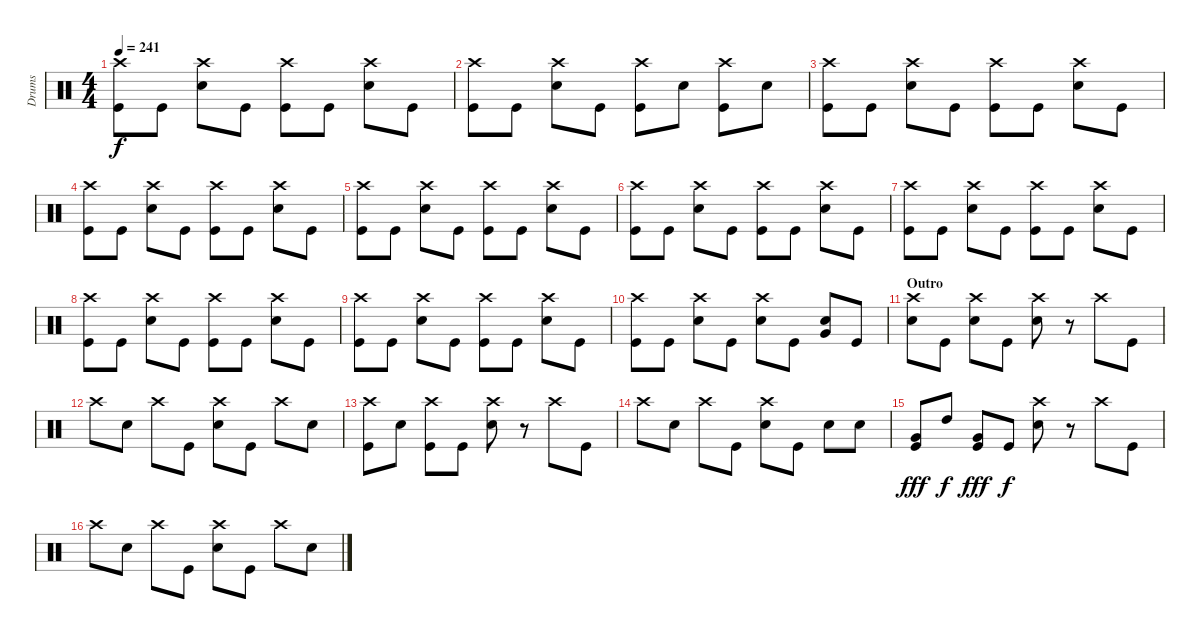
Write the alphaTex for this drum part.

\track ("Drums" "Drums") {instrument percussion}
\staff {score}
\articulation defaults
\ts (4 4)
\tempo 241
\clef neutral
\ks c
("Crash high (hit)" "Kick (hit)").8{dy f} "Kick (hit)".8 ("Crash high (hit)" "Electric Snare (hit)").8 "Kick (hit)".8 ("Crash high (hit)" "Kick (hit)").8 "Kick (hit)".8 ("Crash high (hit)" "Electric Snare (hit)").8 "Kick (hit)".8 |
("Crash high (hit)" "Kick (hit)").8 "Kick (hit)".8 ("Crash high (hit)" "Electric Snare (hit)").8 "Kick (hit)".8 ("Crash high (hit)" "Kick (hit)").8 "Electric Snare (hit)".8 ("Crash high (hit)" "Kick (hit)").8 "Electric Snare (hit)".8 |
("Crash high (hit)" "Kick (hit)").8 "Kick (hit)".8 ("Crash high (hit)" "Electric Snare (hit)").8 "Kick (hit)".8 ("Crash high (hit)" "Kick (hit)").8 "Kick (hit)".8 ("Crash high (hit)" "Electric Snare (hit)").8 "Kick (hit)".8 |
("Crash high (hit)" "Kick (hit)").8 "Kick (hit)".8 ("Crash high (hit)" "Electric Snare (hit)").8 "Kick (hit)".8 ("Crash high (hit)" "Kick (hit)").8 "Kick (hit)".8 ("Crash high (hit)" "Electric Snare (hit)").8 "Kick (hit)".8 |
("Crash high (hit)" "Kick (hit)").8 "Kick (hit)".8 ("Crash high (hit)" "Electric Snare (hit)").8 "Kick (hit)".8 ("Crash high (hit)" "Kick (hit)").8 "Kick (hit)".8 ("Crash high (hit)" "Electric Snare (hit)").8 "Kick (hit)".8 |
("Crash high (hit)" "Kick (hit)").8 "Kick (hit)".8 ("Crash high (hit)" "Electric Snare (hit)").8 "Kick (hit)".8 ("Crash high (hit)" "Kick (hit)").8 "Kick (hit)".8 ("Crash high (hit)" "Electric Snare (hit)").8 "Kick (hit)".8 |
("Crash high (hit)" "Kick (hit)").8 "Kick (hit)".8 ("Crash high (hit)" "Electric Snare (hit)").8 "Kick (hit)".8 ("Crash high (hit)" "Kick (hit)").8 "Kick (hit)".8 ("Crash high (hit)" "Electric Snare (hit)").8 "Kick (hit)".8 |
("Crash high (hit)" "Kick (hit)").8 "Kick (hit)".8 ("Crash high (hit)" "Electric Snare (hit)").8 "Kick (hit)".8 ("Crash high (hit)" "Kick (hit)").8 "Kick (hit)".8 ("Crash high (hit)" "Electric Snare (hit)").8 "Kick (hit)".8 |
("Crash high (hit)" "Kick (hit)").8 "Kick (hit)".8 ("Crash high (hit)" "Electric Snare (hit)").8 "Kick (hit)".8 ("Crash high (hit)" "Kick (hit)").8 "Kick (hit)".8 ("Crash high (hit)" "Electric Snare (hit)").8 "Kick (hit)".8 |
("Crash high (hit)" "Kick (hit)").8 "Kick (hit)".8 ("Crash high (hit)" "Electric Snare (hit)").8 "Kick (hit)".8 ("Crash high (hit)" "Electric Snare (hit)").8 "Kick (hit)".8 ("Very Low Tom (hit)" "Electric Snare (hit)").8 "Kick (hit)".8 |
\section ("" "Outro")
("Crash high (hit)" "Electric Snare (hit)").8 "Kick (hit)".8 ("Crash high (hit)" "Electric Snare (hit)").8 "Kick (hit)".8 ("Crash high (hit)" "Electric Snare (hit)").8 r.8 "Crash high (hit)".8 "Kick (hit)".8 |
"Crash high (hit)".8 "Electric Snare (hit)".8 "Crash high (hit)".8 "Kick (hit)".8 ("Crash high (hit)" "Electric Snare (hit)").8 "Kick (hit)".8 "Crash high (hit)".8 "Electric Snare (hit)".8 |
("Crash high (hit)" "Kick (hit)").8 "Electric Snare (hit)".8 ("Crash high (hit)" "Kick (hit)").8 "Kick (hit)".8 ("Crash high (hit)" "Electric Snare (hit)").8 r.8 "Crash high (hit)".8 "Kick (hit)".8 |
"Crash high (hit)".8 "Electric Snare (hit)".8 "Crash high (hit)".8 "Kick (hit)".8 ("Crash high (hit)" "Electric Snare (hit)").8 "Kick (hit)".8 "Electric Snare (hit)".8 "Electric Snare (hit)".8 |
("Very Low Tom (hit)" "Kick (hit)").8{dy fff} "High Tom (hit)".8{dy f} ("Very Low Tom (hit)" "Kick (hit)").8{dy fff} "Kick (hit)".8{dy f} ("Crash high (hit)" "Electric Snare (hit)").8 r.8 "Crash high (hit)".8 "Kick (hit)".8 |
"Crash high (hit)".8 "Electric Snare (hit)".8 "Crash high (hit)".8 "Kick (hit)".8 ("Crash high (hit)" "Electric Snare (hit)").8 "Kick (hit)".8 "Crash high (hit)".8 "Electric Snare (hit)".8
